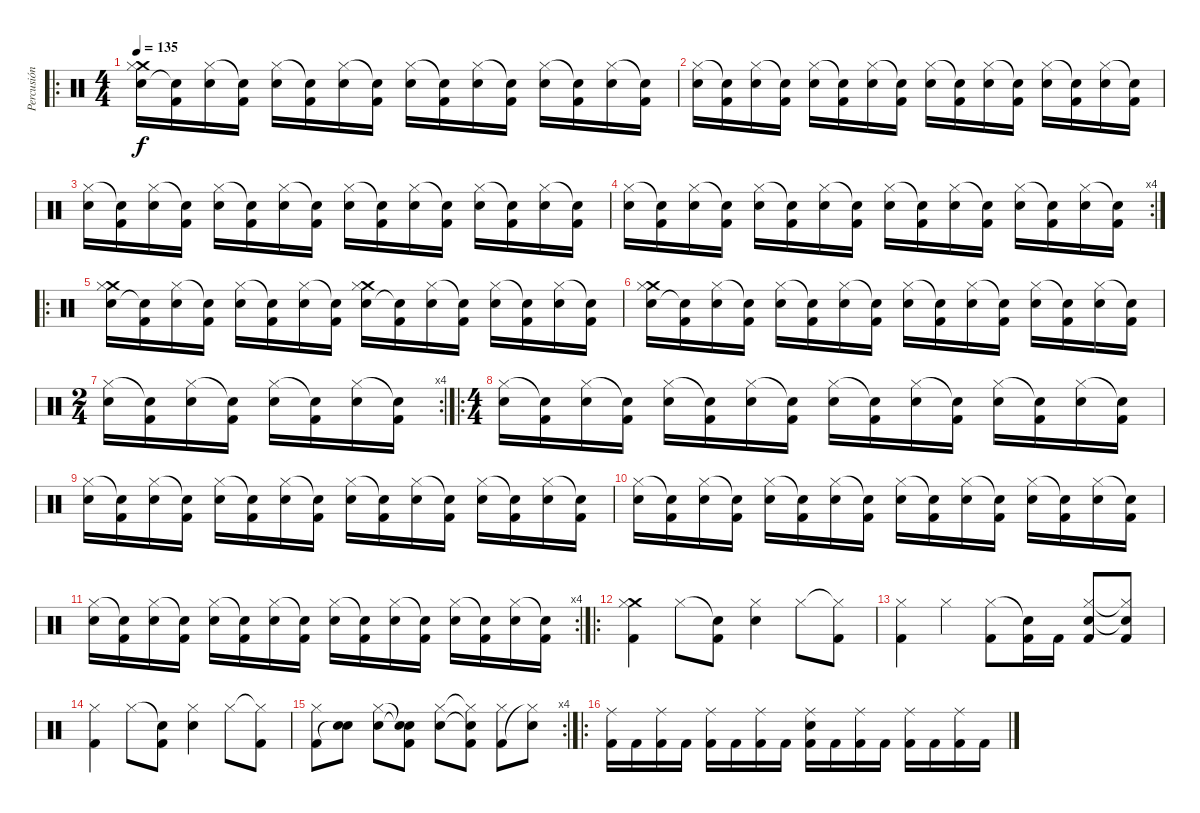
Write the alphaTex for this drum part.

\track ("Percusión" "Percusión") {instrument percussion}
\staff {score}
\articulation defaults
\ro
\ts (4 4)
\tempo 135
\clef neutral
\ks c
("Crash medium (hit)" "Snare (hit) 2" "Hi-Hat (closed)").16{dy f} ("Kick (hit) 2" "Snare (hit)"{t}).16 ("Snare (hit) 2" "Hi-Hat (closed)").16 ("Kick (hit) 2" "Snare (hit)"{t}).16 ("Snare (hit) 2" "Hi-Hat (closed)").16 ("Kick (hit) 2" "Snare (hit)"{t}).16 ("Snare (hit) 2" "Hi-Hat (closed)").16 ("Kick (hit) 2" "Snare (hit)"{t}).16 ("Snare (hit) 2" "Hi-Hat (closed)").16 ("Kick (hit) 2" "Snare (hit)"{t}).16 ("Snare (hit) 2" "Hi-Hat (closed)").16 ("Kick (hit) 2" "Snare (hit)"{t}).16 ("Snare (hit) 2" "Hi-Hat (closed)").16 ("Kick (hit) 2" "Snare (hit)"{t}).16 ("Snare (hit) 2" "Hi-Hat (closed)").16 ("Kick (hit) 2" "Snare (hit)"{t}).16 |
("Snare (hit) 2" "Hi-Hat (closed)").16 ("Kick (hit) 2" "Snare (hit)"{t}).16 ("Snare (hit) 2" "Hi-Hat (closed)").16 ("Kick (hit) 2" "Snare (hit)"{t}).16 ("Snare (hit) 2" "Hi-Hat (closed)").16 ("Kick (hit) 2" "Snare (hit)"{t}).16 ("Snare (hit) 2" "Hi-Hat (closed)").16 ("Kick (hit) 2" "Snare (hit)"{t}).16 ("Snare (hit) 2" "Hi-Hat (closed)").16 ("Kick (hit) 2" "Snare (hit)"{t}).16 ("Snare (hit) 2" "Hi-Hat (closed)").16 ("Kick (hit) 2" "Snare (hit)"{t}).16 ("Snare (hit) 2" "Hi-Hat (closed)").16 ("Kick (hit) 2" "Snare (hit)"{t}).16 ("Snare (hit) 2" "Hi-Hat (closed)").16 ("Kick (hit) 2" "Snare (hit)"{t}).16 |
("Snare (hit) 2" "Hi-Hat (closed)").16 ("Kick (hit) 2" "Snare (hit)"{t}).16 ("Snare (hit) 2" "Hi-Hat (closed)").16 ("Kick (hit) 2" "Snare (hit)"{t}).16 ("Snare (hit) 2" "Hi-Hat (closed)").16 ("Kick (hit) 2" "Snare (hit)"{t}).16 ("Snare (hit) 2" "Hi-Hat (closed)").16 ("Kick (hit) 2" "Snare (hit)"{t}).16 ("Snare (hit) 2" "Hi-Hat (closed)").16 ("Kick (hit) 2" "Snare (hit)"{t}).16 ("Snare (hit) 2" "Hi-Hat (closed)").16 ("Kick (hit) 2" "Snare (hit)"{t}).16 ("Snare (hit) 2" "Hi-Hat (closed)").16 ("Kick (hit) 2" "Snare (hit)"{t}).16 ("Snare (hit) 2" "Hi-Hat (closed)").16 ("Kick (hit) 2" "Snare (hit)"{t}).16 |
\rc 4
("Snare (hit) 2" "Hi-Hat (closed)").16 ("Kick (hit) 2" "Snare (hit)"{t}).16 ("Snare (hit) 2" "Hi-Hat (closed)").16 ("Kick (hit) 2" "Snare (hit)"{t}).16 ("Snare (hit) 2" "Hi-Hat (closed)").16 ("Kick (hit) 2" "Snare (hit)"{t}).16 ("Snare (hit) 2" "Hi-Hat (closed)").16 ("Kick (hit) 2" "Snare (hit)"{t}).16 ("Snare (hit) 2" "Hi-Hat (closed)").16 ("Kick (hit) 2" "Snare (hit)"{t}).16 ("Snare (hit) 2" "Hi-Hat (closed)").16 ("Kick (hit) 2" "Snare (hit)"{t}).16 ("Snare (hit) 2" "Hi-Hat (closed)").16 ("Kick (hit) 2" "Snare (hit)"{t}).16 ("Snare (hit) 2" "Hi-Hat (closed)").16 ("Kick (hit) 2" "Snare (hit)"{t}).16 |
\ro
("Crash medium (hit)" "Snare (hit) 2" "Hi-Hat (closed)").16 ("Kick (hit) 2" "Snare (hit)"{t}).16 ("Snare (hit) 2" "Hi-Hat (closed)").16 ("Kick (hit) 2" "Snare (hit)"{t}).16 ("Snare (hit) 2" "Hi-Hat (closed)").16 ("Kick (hit) 2" "Snare (hit)"{t}).16 ("Snare (hit) 2" "Hi-Hat (closed)").16 ("Kick (hit) 2" "Snare (hit)"{t}).16 ("Crash medium (hit)" "Snare (hit) 2" "Hi-Hat (closed)").16 ("Kick (hit) 2" "Snare (hit)"{t}).16 ("Snare (hit) 2" "Hi-Hat (closed)").16 ("Kick (hit) 2" "Snare (hit)"{t}).16 ("Snare (hit) 2" "Hi-Hat (closed)").16 ("Kick (hit) 2" "Snare (hit)"{t}).16 ("Snare (hit) 2" "Hi-Hat (closed)").16 ("Kick (hit) 2" "Snare (hit)"{t}).16 |
("Crash medium (hit)" "Snare (hit) 2" "Hi-Hat (closed)").16 ("Kick (hit) 2" "Snare (hit)"{t}).16 ("Snare (hit) 2" "Hi-Hat (closed)").16 ("Kick (hit) 2" "Snare (hit)"{t}).16 ("Snare (hit) 2" "Hi-Hat (closed)").16 ("Kick (hit) 2" "Snare (hit)"{t}).16 ("Snare (hit) 2" "Hi-Hat (closed)").16 ("Kick (hit) 2" "Snare (hit)"{t}).16 ("Snare (hit) 2" "Hi-Hat (closed)").16 ("Kick (hit) 2" "Snare (hit)"{t}).16 ("Snare (hit) 2" "Hi-Hat (closed)").16 ("Kick (hit) 2" "Snare (hit)"{t}).16 ("Snare (hit) 2" "Hi-Hat (closed)").16 ("Kick (hit) 2" "Snare (hit)"{t}).16 ("Snare (hit) 2" "Hi-Hat (closed)").16 ("Kick (hit) 2" "Snare (hit)"{t}).16 |
\rc 4
\ts (2 4)
("Snare (hit) 2" "Hi-Hat (closed)").16 ("Kick (hit) 2" "Snare (hit)"{t}).16 ("Snare (hit) 2" "Hi-Hat (closed)").16 ("Kick (hit) 2" "Snare (hit)"{t}).16 ("Snare (hit) 2" "Hi-Hat (closed)").16 ("Kick (hit) 2" "Snare (hit)"{t}).16 ("Snare (hit) 2" "Hi-Hat (closed)").16 ("Kick (hit) 2" "Snare (hit)"{t}).16 |
\ro
\ts (4 4)
("Snare (hit) 2" "Hi-Hat (closed)").16 ("Kick (hit) 2" "Snare (hit)"{t}).16 ("Snare (hit) 2" "Hi-Hat (closed)").16 ("Kick (hit) 2" "Snare (hit)"{t}).16 ("Snare (hit) 2" "Hi-Hat (closed)").16 ("Kick (hit) 2" "Snare (hit)"{t}).16 ("Snare (hit) 2" "Hi-Hat (closed)").16 ("Kick (hit) 2" "Snare (hit)"{t}).16 ("Snare (hit) 2" "Hi-Hat (closed)").16 ("Kick (hit) 2" "Snare (hit)"{t}).16 ("Snare (hit) 2" "Hi-Hat (closed)").16 ("Kick (hit) 2" "Snare (hit)"{t}).16 ("Snare (hit) 2" "Hi-Hat (closed)").16 ("Kick (hit) 2" "Snare (hit)"{t}).16 ("Snare (hit) 2" "Hi-Hat (closed)").16 ("Kick (hit) 2" "Snare (hit)"{t}).16 |
("Snare (hit) 2" "Hi-Hat (closed)").16 ("Kick (hit) 2" "Snare (hit)"{t}).16 ("Snare (hit) 2" "Hi-Hat (closed)").16 ("Kick (hit) 2" "Snare (hit)"{t}).16 ("Snare (hit) 2" "Hi-Hat (closed)").16 ("Kick (hit) 2" "Snare (hit)"{t}).16 ("Snare (hit) 2" "Hi-Hat (closed)").16 ("Kick (hit) 2" "Snare (hit)"{t}).16 ("Snare (hit) 2" "Hi-Hat (closed)").16 ("Kick (hit) 2" "Snare (hit)"{t}).16 ("Snare (hit) 2" "Hi-Hat (closed)").16 ("Kick (hit) 2" "Snare (hit)"{t}).16 ("Snare (hit) 2" "Hi-Hat (closed)").16 ("Kick (hit) 2" "Snare (hit)"{t}).16 ("Snare (hit) 2" "Hi-Hat (closed)").16 ("Kick (hit) 2" "Snare (hit)"{t}).16 |
("Snare (hit) 2" "Hi-Hat (closed)").16 ("Kick (hit) 2" "Snare (hit)"{t}).16 ("Snare (hit) 2" "Hi-Hat (closed)").16 ("Kick (hit) 2" "Snare (hit)"{t}).16 ("Snare (hit) 2" "Hi-Hat (closed)").16 ("Kick (hit) 2" "Snare (hit)"{t}).16 ("Snare (hit) 2" "Hi-Hat (closed)").16 ("Kick (hit) 2" "Snare (hit)"{t}).16 ("Snare (hit) 2" "Hi-Hat (closed)").16 ("Kick (hit) 2" "Snare (hit)"{t}).16 ("Snare (hit) 2" "Hi-Hat (closed)").16 ("Kick (hit) 2" "Snare (hit)"{t}).16 ("Snare (hit) 2" "Hi-Hat (closed)").16 ("Kick (hit) 2" "Snare (hit)"{t}).16 ("Snare (hit) 2" "Hi-Hat (closed)").16 ("Kick (hit) 2" "Snare (hit)"{t}).16 |
\rc 4
("Snare (hit) 2" "Hi-Hat (closed)").16 ("Kick (hit) 2" "Snare (hit)"{t}).16 ("Snare (hit) 2" "Hi-Hat (closed)").16 ("Kick (hit) 2" "Snare (hit)"{t}).16 ("Snare (hit) 2" "Hi-Hat (closed)").16 ("Kick (hit) 2" "Snare (hit)"{t}).16 ("Snare (hit) 2" "Hi-Hat (closed)").16 ("Kick (hit) 2" "Snare (hit)"{t}).16 ("Snare (hit) 2" "Hi-Hat (closed)").16 ("Kick (hit) 2" "Snare (hit)"{t}).16 ("Snare (hit) 2" "Hi-Hat (closed)").16 ("Kick (hit) 2" "Snare (hit)"{t}).16 ("Snare (hit) 2" "Hi-Hat (closed)").16 ("Kick (hit) 2" "Snare (hit)"{t}).16 ("Snare (hit) 2" "Hi-Hat (closed)").16 ("Kick (hit) 2" "Snare (hit)"{t}).16 |
\ro
("Crash medium (hit)" "Hi-Hat (closed)" "Kick (hit) 2").4 "Hi-Hat (closed)".8 ("Snare (hit)"{t} "Kick (hit) 2").8 ("Snare (hit) 2" "Hi-Hat (closed)").4 "Hi-Hat (closed)".8 ("Hi-Hat (closed)"{t} "Kick (hit) 2").8 |
("Hi-Hat (closed)" "Kick (hit) 2").4 "Hi-Hat (closed)".4 ("Hi-Hat (closed)" "Kick (hit) 2").8 ("Snare (hit)"{t} "Kick (hit) 2").16 "Kick (hit) 2".16 ("Snare (hit) 2" "Hi-Hat (closed)" "Kick (hit) 2").8 ("Snare (hit) 2"{t} "Hi-Hat (closed)"{t} "Kick (hit) 2").8 |
("Hi-Hat (closed)" "Kick (hit) 2").4 "Hi-Hat (closed)".8 ("Snare (hit)"{t} "Kick (hit) 2").8 ("Snare (hit) 2" "Hi-Hat (closed)").4 "Hi-Hat (closed)".8 ("Hi-Hat (closed)"{t} "Kick (hit) 2").8 |
\rc 4
("Hi-Hat (closed)" "Kick (hit) 2").8 ("Snare (hit) 2" "Snare (hit)"{t}).8 ("Snare (hit) 2" "Hi-Hat (closed)").8 ("Snare (hit)"{t} "Snare (hit)"{t} "Kick (hit) 2").8 ("Snare (hit) 2" "Hi-Hat (closed)").8 ("Snare (hit) 2"{t} "Hi-Hat (closed)"{t} "Kick (hit) 2").8 ("Hi-Hat (closed)" "Kick (hit) 2").8 ("Snare (hit) 2" "Hi-Hat (closed)"{t}).8 |
\ro
("Kick (hit) 2" "Ride (middle)").16 "Kick (hit) 2".16 ("Kick (hit) 2" "Ride (middle)").16 "Kick (hit) 2".16 ("Kick (hit) 2" "Ride (middle)").16 "Kick (hit) 2".16 ("Kick (hit) 2" "Ride (middle)").16 "Kick (hit) 2".16 ("Snare (hit) 2" "Kick (hit) 2" "Ride (middle)").16 "Kick (hit) 2".16 ("Kick (hit) 2" "Ride (middle)").16 "Kick (hit) 2".16 ("Kick (hit) 2" "Ride (middle)").16 "Kick (hit) 2".16 ("Kick (hit) 2" "Ride (middle)").16 "Kick (hit) 2".16
